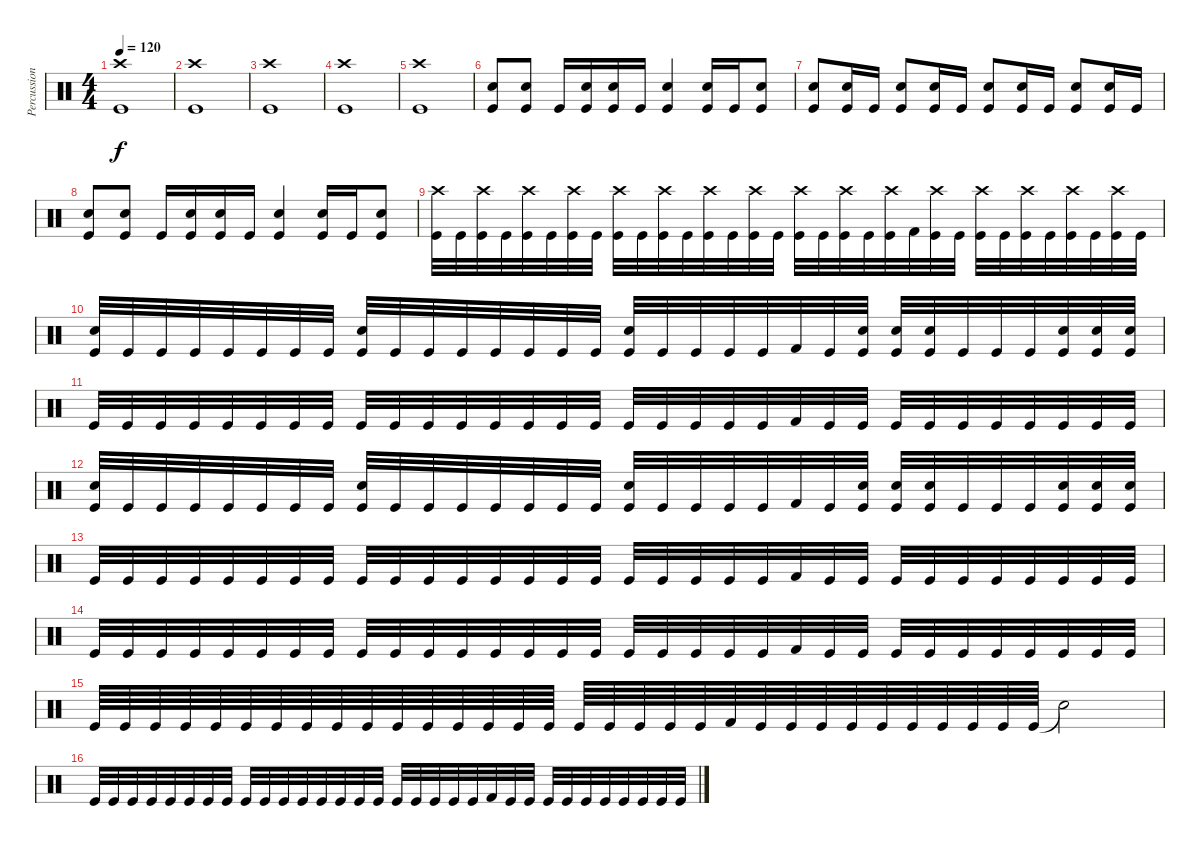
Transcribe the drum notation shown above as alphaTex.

\track ("Percussion" "Percussion") {instrument percussion}
\staff {score}
\articulation defaults
\ts (4 4)
\tempo 120
\clef neutral
\ks c
("Crash high (hit)" "Kick (hit)").1{dy f} |
("Crash high (hit)" "Kick (hit)").1 |
("Crash high (hit)" "Kick (hit)").1 |
("Crash high (hit)" "Kick (hit)").1 |
("Crash high (hit)" "Kick (hit)").1 |
("Kick (hit)" "Snare (hit) 2").8 ("Kick (hit)" "Snare (hit) 2").8 "Kick (hit)".16 ("Kick (hit)" "Snare (hit) 2").16 ("Kick (hit)" "Snare (hit) 2").16 "Kick (hit)".16 ("Kick (hit)" "Snare (hit) 2").4 ("Kick (hit)" "Snare (hit) 2").16 "Kick (hit)".16 ("Kick (hit)" "Snare (hit) 2").8 |
("Kick (hit)" "Snare (hit) 2").8 ("Kick (hit)" "Snare (hit) 2").16 "Kick (hit)".16 ("Kick (hit)" "Snare (hit) 2").8 ("Kick (hit)" "Snare (hit) 2").16 "Kick (hit)".16 ("Kick (hit)" "Snare (hit) 2").8 ("Kick (hit)" "Snare (hit) 2").16 "Kick (hit)".16 ("Kick (hit)" "Snare (hit) 2").8 ("Kick (hit)" "Snare (hit) 2").16 "Kick (hit)".16 |
("Kick (hit)" "Snare (hit) 2").8 ("Kick (hit)" "Snare (hit) 2").8 "Kick (hit)".16 ("Kick (hit)" "Snare (hit) 2").16 ("Kick (hit)" "Snare (hit) 2").16 "Kick (hit)".16 ("Kick (hit)" "Snare (hit) 2").4 ("Kick (hit)" "Snare (hit) 2").16 "Kick (hit)".16 ("Kick (hit)" "Snare (hit) 2").8 |
("Kick (hit)" "Crash high (hit)").32 "Kick (hit)".32 ("Kick (hit)" "Crash high (hit)").32 "Kick (hit)".32 ("Kick (hit)" "Crash high (hit)").32 "Kick (hit)".32 ("Kick (hit)" "Crash high (hit)").32 "Kick (hit)".32 ("Kick (hit)" "Crash high (hit)").32 "Kick (hit)".32 ("Kick (hit)" "Crash high (hit)").32 "Kick (hit)".32 ("Kick (hit)" "Crash high (hit)").32 "Kick (hit)".32 ("Kick (hit)" "Crash high (hit)").32 "Kick (hit)".32 ("Kick (hit)" "Crash high (hit)").32 "Kick (hit)".32 ("Kick (hit)" "Crash high (hit)").32 "Kick (hit)".32 ("Kick (hit)" "Crash high (hit)").32 "Kick (hit) 2".32 ("Kick (hit)" "Crash high (hit)").32 "Kick (hit)".32 ("Kick (hit)" "Crash high (hit)").32 "Kick (hit)".32 ("Kick (hit)" "Crash high (hit)").32 "Kick (hit)".32 ("Kick (hit)" "Crash high (hit)").32 "Kick (hit)".32 ("Kick (hit)" "Crash high (hit)").32 "Kick (hit)".32 |
("Kick (hit)" "Snare (hit) 2").32 "Kick (hit)".32 "Kick (hit)".32 "Kick (hit)".32 "Kick (hit)".32 "Kick (hit)".32 "Kick (hit)".32 "Kick (hit)".32 ("Kick (hit)" "Snare (hit) 2").32 "Kick (hit)".32 "Kick (hit)".32 "Kick (hit)".32 "Kick (hit)".32 "Kick (hit)".32 "Kick (hit)".32 "Kick (hit)".32 ("Kick (hit)" "Snare (hit) 2").32 "Kick (hit)".32 "Kick (hit)".32 "Kick (hit)".32 "Kick (hit)".32 "Kick (hit) 2".32 "Kick (hit)".32 ("Kick (hit)" "Snare (hit) 2").32 ("Kick (hit)" "Snare (hit) 2").32 ("Kick (hit)" "Snare (hit) 2").32 "Kick (hit)".32 "Kick (hit)".32 "Kick (hit)".32 ("Kick (hit)" "Snare (hit) 2").32 ("Kick (hit)" "Snare (hit) 2").32 ("Kick (hit)" "Snare (hit) 2").32 |
"Kick (hit)".32 "Kick (hit)".32 "Kick (hit)".32 "Kick (hit)".32 "Kick (hit)".32 "Kick (hit)".32 "Kick (hit)".32 "Kick (hit)".32 "Kick (hit)".32 "Kick (hit)".32 "Kick (hit)".32 "Kick (hit)".32 "Kick (hit)".32 "Kick (hit)".32 "Kick (hit)".32 "Kick (hit)".32 "Kick (hit)".32 "Kick (hit)".32 "Kick (hit)".32 "Kick (hit)".32 "Kick (hit)".32 "Kick (hit) 2".32 "Kick (hit)".32 "Kick (hit)".32 "Kick (hit)".32 "Kick (hit)".32 "Kick (hit)".32 "Kick (hit)".32 "Kick (hit)".32 "Kick (hit)".32 "Kick (hit)".32 "Kick (hit)".32 |
("Kick (hit)" "Snare (hit) 2").32 "Kick (hit)".32 "Kick (hit)".32 "Kick (hit)".32 "Kick (hit)".32 "Kick (hit)".32 "Kick (hit)".32 "Kick (hit)".32 ("Kick (hit)" "Snare (hit) 2").32 "Kick (hit)".32 "Kick (hit)".32 "Kick (hit)".32 "Kick (hit)".32 "Kick (hit)".32 "Kick (hit)".32 "Kick (hit)".32 ("Kick (hit)" "Snare (hit) 2").32 "Kick (hit)".32 "Kick (hit)".32 "Kick (hit)".32 "Kick (hit)".32 "Kick (hit) 2".32 "Kick (hit)".32 ("Kick (hit)" "Snare (hit) 2").32 ("Kick (hit)" "Snare (hit) 2").32 ("Kick (hit)" "Snare (hit) 2").32 "Kick (hit)".32 "Kick (hit)".32 "Kick (hit)".32 ("Kick (hit)" "Snare (hit) 2").32 ("Kick (hit)" "Snare (hit) 2").32 ("Kick (hit)" "Snare (hit) 2").32 |
"Kick (hit)".32 "Kick (hit)".32 "Kick (hit)".32 "Kick (hit)".32 "Kick (hit)".32 "Kick (hit)".32 "Kick (hit)".32 "Kick (hit)".32 "Kick (hit)".32 "Kick (hit)".32 "Kick (hit)".32 "Kick (hit)".32 "Kick (hit)".32 "Kick (hit)".32 "Kick (hit)".32 "Kick (hit)".32 "Kick (hit)".32 "Kick (hit)".32 "Kick (hit)".32 "Kick (hit)".32 "Kick (hit)".32 "Kick (hit) 2".32 "Kick (hit)".32 "Kick (hit)".32 "Kick (hit)".32 "Kick (hit)".32 "Kick (hit)".32 "Kick (hit)".32 "Kick (hit)".32 "Kick (hit)".32 "Kick (hit)".32 "Kick (hit)".32 |
"Kick (hit)".32 "Kick (hit)".32 "Kick (hit)".32 "Kick (hit)".32 "Kick (hit)".32 "Kick (hit)".32 "Kick (hit)".32 "Kick (hit)".32 "Kick (hit)".32 "Kick (hit)".32 "Kick (hit)".32 "Kick (hit)".32 "Kick (hit)".32 "Kick (hit)".32 "Kick (hit)".32 "Kick (hit)".32 "Kick (hit)".32 "Kick (hit)".32 "Kick (hit)".32 "Kick (hit)".32 "Kick (hit)".32 "Kick (hit) 2".32 "Kick (hit)".32 "Kick (hit)".32 "Kick (hit)".32 "Kick (hit)".32 "Kick (hit)".32 "Kick (hit)".32 "Kick (hit)".32 "Kick (hit)".32 "Kick (hit)".32 "Kick (hit)".32 |
"Kick (hit)".64 "Kick (hit)".64 "Kick (hit)".64 "Kick (hit)".64 "Kick (hit)".64 "Kick (hit)".64 "Kick (hit)".64 "Kick (hit)".64 "Kick (hit)".64 "Kick (hit)".64 "Kick (hit)".64 "Kick (hit)".64 "Kick (hit)".64 "Kick (hit)".64 "Kick (hit)".64 "Kick (hit)".64 "Kick (hit)".64 "Kick (hit)".64 "Kick (hit)".64 "Kick (hit)".64 "Kick (hit)".64 "Kick (hit) 2".64 "Kick (hit)".64 "Kick (hit)".64 "Kick (hit)".64 "Kick (hit)".64 "Kick (hit)".64 "Kick (hit)".64 "Kick (hit)".64 "Kick (hit)".64 "Kick (hit)".64 "Kick (hit)".64 "Snare (hit)"{t}.2 |
"Kick (hit)".32 "Kick (hit)".32 "Kick (hit)".32 "Kick (hit)".32 "Kick (hit)".32 "Kick (hit)".32 "Kick (hit)".32 "Kick (hit)".32 "Kick (hit)".32 "Kick (hit)".32 "Kick (hit)".32 "Kick (hit)".32 "Kick (hit)".32 "Kick (hit)".32 "Kick (hit)".32 "Kick (hit)".32 "Kick (hit)".32 "Kick (hit)".32 "Kick (hit)".32 "Kick (hit)".32 "Kick (hit)".32 "Kick (hit) 2".32 "Kick (hit)".32 "Kick (hit)".32 "Kick (hit)".32 "Kick (hit)".32 "Kick (hit)".32 "Kick (hit)".32 "Kick (hit)".32 "Kick (hit)".32 "Kick (hit)".32 "Kick (hit)".32
